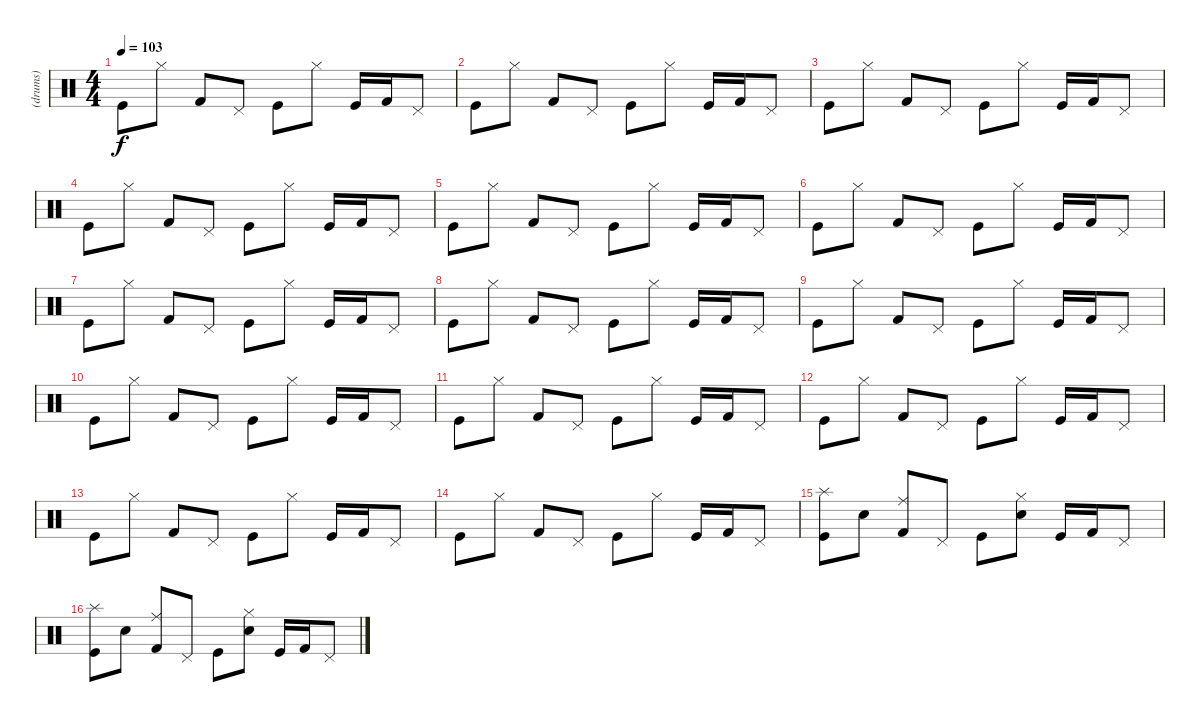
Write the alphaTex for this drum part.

\track ("(drums)" "(drums)") {instrument percussion}
\staff {score}
\articulation defaults
\ts (4 4)
\tempo 103
\clef neutral
\ks c "Kick (hit)".8{dy f} "Hi-Hat (closed)".8 "Kick (hit) 2".8 "Pedal Hi-Hat (hit)".8 "Kick (hit)".8 "Hi-Hat (closed)".8 "Kick (hit)".16 "Kick (hit) 2".16 "Pedal Hi-Hat (hit)".8
|
"Kick (hit)".8 "Hi-Hat (closed)".8 "Kick (hit) 2".8 "Pedal Hi-Hat (hit)".8 "Kick (hit)".8 "Hi-Hat (closed)".8 "Kick (hit)".16 "Kick (hit) 2".16 "Pedal Hi-Hat (hit)".8 |
"Kick (hit)".8 "Hi-Hat (closed)".8 "Kick (hit) 2".8 "Pedal Hi-Hat (hit)".8 "Kick (hit)".8 "Hi-Hat (closed)".8 "Kick (hit)".16 "Kick (hit) 2".16 "Pedal Hi-Hat (hit)".8 |
"Kick (hit)".8 "Hi-Hat (closed)".8 "Kick (hit) 2".8 "Pedal Hi-Hat (hit)".8 "Kick (hit)".8 "Hi-Hat (closed)".8 "Kick (hit)".16 "Kick (hit) 2".16 "Pedal Hi-Hat (hit)".8 |
"Kick (hit)".8 "Hi-Hat (closed)".8 "Kick (hit) 2".8 "Pedal Hi-Hat (hit)".8 "Kick (hit)".8 "Hi-Hat (closed)".8 "Kick (hit)".16 "Kick (hit) 2".16 "Pedal Hi-Hat (hit)".8 |
"Kick (hit)".8 "Hi-Hat (closed)".8 "Kick (hit) 2".8 "Pedal Hi-Hat (hit)".8 "Kick (hit)".8 "Hi-Hat (closed)".8 "Kick (hit)".16 "Kick (hit) 2".16 "Pedal Hi-Hat (hit)".8 |
"Kick (hit)".8 "Hi-Hat (closed)".8 "Kick (hit) 2".8 "Pedal Hi-Hat (hit)".8 "Kick (hit)".8 "Hi-Hat (closed)".8 "Kick (hit)".16 "Kick (hit) 2".16 "Pedal Hi-Hat (hit)".8 |
"Kick (hit)".8 "Hi-Hat (closed)".8 "Kick (hit) 2".8 "Pedal Hi-Hat (hit)".8 "Kick (hit)".8 "Hi-Hat (closed)".8 "Kick (hit)".16 "Kick (hit) 2".16 "Pedal Hi-Hat (hit)".8 |
"Kick (hit)".8 "Hi-Hat (closed)".8 "Kick (hit) 2".8 "Pedal Hi-Hat (hit)".8 "Kick (hit)".8 "Hi-Hat (closed)".8 "Kick (hit)".16 "Kick (hit) 2".16 "Pedal Hi-Hat (hit)".8 |
"Kick (hit)".8 "Hi-Hat (closed)".8 "Kick (hit) 2".8 "Pedal Hi-Hat (hit)".8 "Kick (hit)".8 "Hi-Hat (closed)".8 "Kick (hit)".16 "Kick (hit) 2".16 "Pedal Hi-Hat (hit)".8 |
"Kick (hit)".8 "Hi-Hat (closed)".8 "Kick (hit) 2".8 "Pedal Hi-Hat (hit)".8 "Kick (hit)".8 "Hi-Hat (closed)".8 "Kick (hit)".16 "Kick (hit) 2".16 "Pedal Hi-Hat (hit)".8 |
"Kick (hit)".8 "Hi-Hat (closed)".8 "Kick (hit) 2".8 "Pedal Hi-Hat (hit)".8 "Kick (hit)".8 "Hi-Hat (closed)".8 "Kick (hit)".16 "Kick (hit) 2".16 "Pedal Hi-Hat (hit)".8 |
"Kick (hit)".8 "Hi-Hat (closed)".8 "Kick (hit) 2".8 "Pedal Hi-Hat (hit)".8 "Kick (hit)".8 "Hi-Hat (closed)".8 "Kick (hit)".16 "Kick (hit) 2".16 "Pedal Hi-Hat (hit)".8 |
"Kick (hit)".8 "Hi-Hat (closed)".8 "Kick (hit) 2".8 "Pedal Hi-Hat (hit)".8 "Kick (hit)".8 "Hi-Hat (closed)".8 "Kick (hit)".16 "Kick (hit) 2".16 "Pedal Hi-Hat (hit)".8 |
("Splash (hit)" "Kick (hit)").8 "Electric Snare (hit)".8 ("Ride (middle)" "Kick (hit) 2").8 "Pedal Hi-Hat (hit)".8 "Kick (hit)".8 ("Hi-Hat (closed)" "Electric Snare (hit)").8 "Kick (hit)".16 "Kick (hit) 2".16 "Pedal Hi-Hat (hit)".8 |
("Splash (hit)" "Kick (hit)").8 "Electric Snare (hit)".8 ("Ride (middle)" "Kick (hit) 2").8 "Pedal Hi-Hat (hit)".8 "Kick (hit)".8 ("Hi-Hat (closed)" "Electric Snare (hit)").8 "Kick (hit)".16 "Kick (hit) 2".16 "Pedal Hi-Hat (hit)".8
